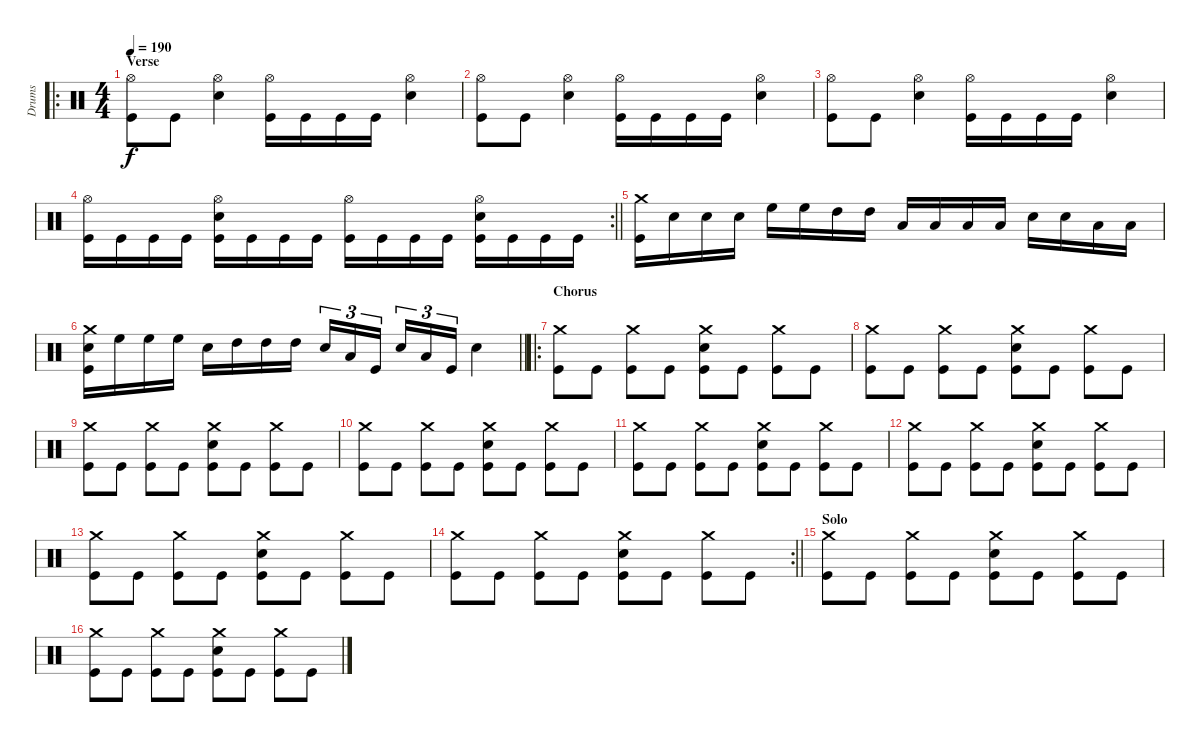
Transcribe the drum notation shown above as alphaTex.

\track ("Drums" "Drums") {instrument percussion}
\staff {score}
\articulation defaults
\ro
\ts (4 4)
\section ("" "Verse")
\tempo 190
\clef neutral
\ks c
("Hi-Hat (open)" "Kick (hit)").8{dy f} "Kick (hit)".8 ("Hi-Hat (open)" "Snare (hit) 2").4 ("Hi-Hat (open)" "Kick (hit)").16 "Kick (hit)".16 "Kick (hit)".16 "Kick (hit)".16 ("Hi-Hat (open)" "Snare (hit) 2").4 |
("Hi-Hat (open)" "Kick (hit)").8 "Kick (hit)".8 ("Hi-Hat (open)" "Snare (hit) 2").4 ("Hi-Hat (open)" "Kick (hit)").16 "Kick (hit)".16 "Kick (hit)".16 "Kick (hit)".16 ("Hi-Hat (open)" "Snare (hit) 2").4 |
("Hi-Hat (open)" "Kick (hit)").8 "Kick (hit)".8 ("Hi-Hat (open)" "Snare (hit) 2").4 ("Hi-Hat (open)" "Kick (hit)").16 "Kick (hit)".16 "Kick (hit)".16 "Kick (hit)".16 ("Hi-Hat (open)" "Snare (hit) 2").4 |
\rc 2
\barLineRight lightlight
("Hi-Hat (open)" "Kick (hit)").16 "Kick (hit)".16 "Kick (hit)".16 "Kick (hit)".16 ("Hi-Hat (open)" "Snare (hit) 2" "Kick (hit)").16 "Kick (hit)".16 "Kick (hit)".16 "Kick (hit)".16 ("Hi-Hat (open)" "Kick (hit)").16 "Kick (hit)".16 "Kick (hit)".16 "Kick (hit)".16 ("Hi-Hat (open)" "Snare (hit) 2" "Kick (hit)").16 "Kick (hit)".16 "Kick (hit)".16 "Kick (hit)".16 |
("Crash medium (hit)" "Kick (hit)").16 "Snare (hit) 2".16 "Snare (hit) 2".16 "Snare (hit) 2".16 "High Floor Tom (hit)".16 "High Floor Tom (hit)".16 "High Tom (hit)".16 "High Tom (hit)".16 "Low Tom (hit)".16 "Low Tom (hit)".16 "Low Floor Tom (hit)".16 "Low Floor Tom (hit)".16 "Snare (hit) 2".16 "Snare (hit) 2".16 "Low Floor Tom (hit)".16 "Low Floor Tom (hit)".16 |
\barLineRight lightlight
("Crash medium (hit)" "Snare (hit) 2" "Kick (hit)").16 "High Floor Tom (hit)".16 "High Floor Tom (hit)".16 "High Floor Tom (hit)".16 "Snare (hit) 2".16 "High Tom (hit)".16 "High Tom (hit)".16 "High Tom (hit)".16 "Snare (hit) 2".16{tu (3 2)} "Low Tom (hit)".16{tu (3 2)} "Kick (hit)".16{tu (3 2) beam splitsecondary} "Snare (hit) 2".16{tu (3 2)} "Low Tom (hit)".16{tu (3 2)} "Kick (hit)".16{tu (3 2)} "Snare (hit) 2".4 |
\ro
\section ("" "Chorus")
("Crash medium (hit)" "Kick (hit)").8 "Kick (hit)".8 ("Crash medium (hit)" "Kick (hit)").8 "Kick (hit)".8 ("Crash medium (hit)" "Snare (hit) 2" "Kick (hit)").8 "Kick (hit)".8 ("Crash medium (hit)" "Kick (hit)").8 "Kick (hit)".8 |
("Crash medium (hit)" "Kick (hit)").8 "Kick (hit)".8 ("Crash medium (hit)" "Kick (hit)").8 "Kick (hit)".8 ("Crash medium (hit)" "Snare (hit) 2" "Kick (hit)").8 "Kick (hit)".8 ("Crash medium (hit)" "Kick (hit)").8 "Kick (hit)".8 |
("Crash medium (hit)" "Kick (hit)").8 "Kick (hit)".8 ("Crash medium (hit)" "Kick (hit)").8 "Kick (hit)".8 ("Crash medium (hit)" "Snare (hit) 2" "Kick (hit)").8 "Kick (hit)".8 ("Crash medium (hit)" "Kick (hit)").8 "Kick (hit)".8 |
("Crash medium (hit)" "Kick (hit)").8 "Kick (hit)".8 ("Crash medium (hit)" "Kick (hit)").8 "Kick (hit)".8 ("Crash medium (hit)" "Snare (hit) 2" "Kick (hit)").8 "Kick (hit)".8 ("Crash medium (hit)" "Kick (hit)").8 "Kick (hit)".8 |
("Crash medium (hit)" "Kick (hit)").8 "Kick (hit)".8 ("Crash medium (hit)" "Kick (hit)").8 "Kick (hit)".8 ("Crash medium (hit)" "Snare (hit) 2" "Kick (hit)").8 "Kick (hit)".8 ("Crash medium (hit)" "Kick (hit)").8 "Kick (hit)".8 |
("Crash medium (hit)" "Kick (hit)").8 "Kick (hit)".8 ("Crash medium (hit)" "Kick (hit)").8 "Kick (hit)".8 ("Crash medium (hit)" "Snare (hit) 2" "Kick (hit)").8 "Kick (hit)".8 ("Crash medium (hit)" "Kick (hit)").8 "Kick (hit)".8 |
("Crash medium (hit)" "Kick (hit)").8 "Kick (hit)".8 ("Crash medium (hit)" "Kick (hit)").8 "Kick (hit)".8 ("Crash medium (hit)" "Snare (hit) 2" "Kick (hit)").8 "Kick (hit)".8 ("Crash medium (hit)" "Kick (hit)").8 "Kick (hit)".8 |
\rc 2
\barLineRight lightlight
("Crash medium (hit)" "Kick (hit)").8 "Kick (hit)".8 ("Crash medium (hit)" "Kick (hit)").8 "Kick (hit)".8 ("Crash medium (hit)" "Snare (hit) 2" "Kick (hit)").8 "Kick (hit)".8 ("Crash medium (hit)" "Kick (hit)").8 "Kick (hit)".8 |
\section ("" "Solo")
("Crash medium (hit)" "Kick (hit)").8 "Kick (hit)".8 ("Crash medium (hit)" "Kick (hit)").8 "Kick (hit)".8 ("Crash medium (hit)" "Snare (hit) 2" "Kick (hit)").8 "Kick (hit)".8 ("Crash medium (hit)" "Kick (hit)").8 "Kick (hit)".8 |
("Crash medium (hit)" "Kick (hit)").8 "Kick (hit)".8 ("Crash medium (hit)" "Kick (hit)").8 "Kick (hit)".8 ("Crash medium (hit)" "Snare (hit) 2" "Kick (hit)").8 "Kick (hit)".8 ("Crash medium (hit)" "Kick (hit)").8 "Kick (hit)".8
